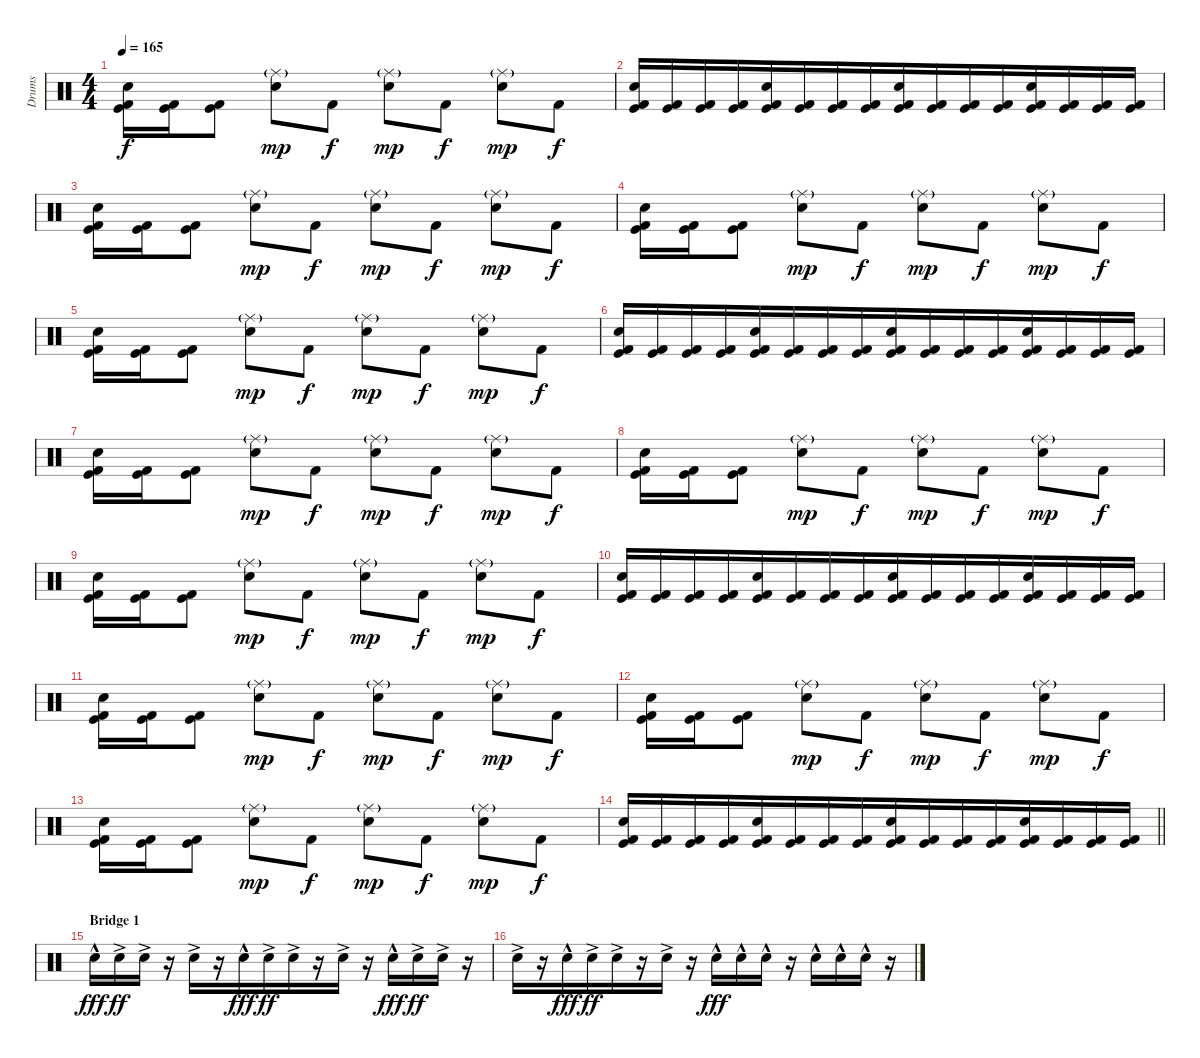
\track ("Drums" "Drums") {instrument percussion}
\staff {score}
\articulation defaults
\ts (4 4)
\tempo 165
\clef neutral
\ks c
("Snare (hit) 2" "Kick (hit)" "Kick (hit) 2").16{dy f beam Down} ("Kick (hit)" "Kick (hit) 2").16{beam Down} ("Kick (hit)" "Kick (hit) 2").8{beam Down} ("Ride (middle)"{g} "Snare (hit) 2").8{dy mp} "Kick (hit) 2".8{dy f} ("Ride (middle)"{g} "Snare (hit) 2").8{dy mp} "Kick (hit) 2".8{dy f} ("Ride (middle)"{g} "Snare (hit) 2").8{dy mp} "Kick (hit) 2".8{dy f} |
("Snare (hit) 2" "Kick (hit)" "Kick (hit) 2").16 ("Kick (hit)" "Kick (hit) 2").16 ("Kick (hit)" "Kick (hit) 2").16 ("Kick (hit)" "Kick (hit) 2").16{beam merge} ("Snare (hit) 2" "Kick (hit)" "Kick (hit) 2").16 ("Kick (hit)" "Kick (hit) 2").16 ("Kick (hit)" "Kick (hit) 2").16 ("Kick (hit)" "Kick (hit) 2").16{beam merge} ("Snare (hit) 2" "Kick (hit)" "Kick (hit) 2").16 ("Kick (hit)" "Kick (hit) 2").16 ("Kick (hit)" "Kick (hit) 2").16 ("Kick (hit)" "Kick (hit) 2").16{beam merge} ("Snare (hit) 2" "Kick (hit)" "Kick (hit) 2").16 ("Kick (hit)" "Kick (hit) 2").16 ("Kick (hit)" "Kick (hit) 2").16 ("Kick (hit)" "Kick (hit) 2").16 |
("Snare (hit) 2" "Kick (hit)" "Kick (hit) 2").16{beam Down} ("Kick (hit)" "Kick (hit) 2").16{beam Down} ("Kick (hit)" "Kick (hit) 2").8{beam Down} ("Ride (middle)"{g} "Snare (hit) 2").8{dy mp} "Kick (hit) 2".8{dy f} ("Ride (middle)"{g} "Snare (hit) 2").8{dy mp} "Kick (hit) 2".8{dy f} ("Ride (middle)"{g} "Snare (hit) 2").8{dy mp} "Kick (hit) 2".8{dy f} |
("Snare (hit) 2" "Kick (hit)" "Kick (hit) 2").16{beam Down} ("Kick (hit)" "Kick (hit) 2").16{beam Down} ("Kick (hit)" "Kick (hit) 2").8{beam Down} ("Ride (middle)"{g} "Snare (hit) 2").8{dy mp} "Kick (hit) 2".8{dy f} ("Ride (middle)"{g} "Snare (hit) 2").8{dy mp} "Kick (hit) 2".8{dy f} ("Ride (middle)"{g} "Snare (hit) 2").8{dy mp} "Kick (hit) 2".8{dy f} |
("Snare (hit) 2" "Kick (hit)" "Kick (hit) 2").16{beam Down} ("Kick (hit)" "Kick (hit) 2").16{beam Down} ("Kick (hit)" "Kick (hit) 2").8{beam Down} ("Ride (middle)"{g} "Snare (hit) 2").8{dy mp} "Kick (hit) 2".8{dy f} ("Ride (middle)"{g} "Snare (hit) 2").8{dy mp} "Kick (hit) 2".8{dy f} ("Ride (middle)"{g} "Snare (hit) 2").8{dy mp} "Kick (hit) 2".8{dy f} |
("Snare (hit) 2" "Kick (hit)" "Kick (hit) 2").16 ("Kick (hit)" "Kick (hit) 2").16 ("Kick (hit)" "Kick (hit) 2").16 ("Kick (hit)" "Kick (hit) 2").16{beam merge} ("Snare (hit) 2" "Kick (hit)" "Kick (hit) 2").16 ("Kick (hit)" "Kick (hit) 2").16 ("Kick (hit)" "Kick (hit) 2").16 ("Kick (hit)" "Kick (hit) 2").16{beam merge} ("Snare (hit) 2" "Kick (hit)" "Kick (hit) 2").16 ("Kick (hit)" "Kick (hit) 2").16 ("Kick (hit)" "Kick (hit) 2").16 ("Kick (hit)" "Kick (hit) 2").16{beam merge} ("Snare (hit) 2" "Kick (hit)" "Kick (hit) 2").16 ("Kick (hit)" "Kick (hit) 2").16 ("Kick (hit)" "Kick (hit) 2").16 ("Kick (hit)" "Kick (hit) 2").16 |
("Snare (hit) 2" "Kick (hit)" "Kick (hit) 2").16{beam Down} ("Kick (hit)" "Kick (hit) 2").16{beam Down} ("Kick (hit)" "Kick (hit) 2").8{beam Down} ("Ride (middle)"{g} "Snare (hit) 2").8{dy mp} "Kick (hit) 2".8{dy f} ("Ride (middle)"{g} "Snare (hit) 2").8{dy mp} "Kick (hit) 2".8{dy f} ("Ride (middle)"{g} "Snare (hit) 2").8{dy mp} "Kick (hit) 2".8{dy f} |
("Snare (hit) 2" "Kick (hit)" "Kick (hit) 2").16{beam Down} ("Kick (hit)" "Kick (hit) 2").16{beam Down} ("Kick (hit)" "Kick (hit) 2").8{beam Down} ("Ride (middle)"{g} "Snare (hit) 2").8{dy mp} "Kick (hit) 2".8{dy f} ("Ride (middle)"{g} "Snare (hit) 2").8{dy mp} "Kick (hit) 2".8{dy f} ("Ride (middle)"{g} "Snare (hit) 2").8{dy mp} "Kick (hit) 2".8{dy f} |
("Snare (hit) 2" "Kick (hit)" "Kick (hit) 2").16{beam Down} ("Kick (hit)" "Kick (hit) 2").16{beam Down} ("Kick (hit)" "Kick (hit) 2").8{beam Down} ("Ride (middle)"{g} "Snare (hit) 2").8{dy mp} "Kick (hit) 2".8{dy f} ("Ride (middle)"{g} "Snare (hit) 2").8{dy mp} "Kick (hit) 2".8{dy f} ("Ride (middle)"{g} "Snare (hit) 2").8{dy mp} "Kick (hit) 2".8{dy f} |
("Snare (hit) 2" "Kick (hit)" "Kick (hit) 2").16 ("Kick (hit)" "Kick (hit) 2").16 ("Kick (hit)" "Kick (hit) 2").16 ("Kick (hit)" "Kick (hit) 2").16{beam merge} ("Snare (hit) 2" "Kick (hit)" "Kick (hit) 2").16 ("Kick (hit)" "Kick (hit) 2").16 ("Kick (hit)" "Kick (hit) 2").16 ("Kick (hit)" "Kick (hit) 2").16{beam merge} ("Snare (hit) 2" "Kick (hit)" "Kick (hit) 2").16 ("Kick (hit)" "Kick (hit) 2").16 ("Kick (hit)" "Kick (hit) 2").16 ("Kick (hit)" "Kick (hit) 2").16{beam merge} ("Snare (hit) 2" "Kick (hit)" "Kick (hit) 2").16 ("Kick (hit)" "Kick (hit) 2").16 ("Kick (hit)" "Kick (hit) 2").16 ("Kick (hit)" "Kick (hit) 2").16 |
("Snare (hit) 2" "Kick (hit)" "Kick (hit) 2").16{beam Down} ("Kick (hit)" "Kick (hit) 2").16{beam Down} ("Kick (hit)" "Kick (hit) 2").8{beam Down} ("Ride (middle)"{g} "Snare (hit) 2").8{dy mp} "Kick (hit) 2".8{dy f} ("Ride (middle)"{g} "Snare (hit) 2").8{dy mp} "Kick (hit) 2".8{dy f} ("Ride (middle)"{g} "Snare (hit) 2").8{dy mp} "Kick (hit) 2".8{dy f} |
("Snare (hit) 2" "Kick (hit)" "Kick (hit) 2").16{beam Down} ("Kick (hit)" "Kick (hit) 2").16{beam Down} ("Kick (hit)" "Kick (hit) 2").8{beam Down} ("Ride (middle)"{g} "Snare (hit) 2").8{dy mp} "Kick (hit) 2".8{dy f} ("Ride (middle)"{g} "Snare (hit) 2").8{dy mp} "Kick (hit) 2".8{dy f} ("Ride (middle)"{g} "Snare (hit) 2").8{dy mp} "Kick (hit) 2".8{dy f} |
("Snare (hit) 2" "Kick (hit)" "Kick (hit) 2").16{beam Down} ("Kick (hit)" "Kick (hit) 2").16{beam Down} ("Kick (hit)" "Kick (hit) 2").8{beam Down} ("Ride (middle)"{g} "Snare (hit) 2").8{dy mp} "Kick (hit) 2".8{dy f} ("Ride (middle)"{g} "Snare (hit) 2").8{dy mp} "Kick (hit) 2".8{dy f} ("Ride (middle)"{g} "Snare (hit) 2").8{dy mp} "Kick (hit) 2".8{dy f} |
\barLineRight lightlight
("Snare (hit) 2" "Kick (hit)" "Kick (hit) 2").16 ("Kick (hit)" "Kick (hit) 2").16 ("Kick (hit)" "Kick (hit) 2").16 ("Kick (hit)" "Kick (hit) 2").16{beam merge} ("Snare (hit) 2" "Kick (hit)" "Kick (hit) 2").16 ("Kick (hit)" "Kick (hit) 2").16 ("Kick (hit)" "Kick (hit) 2").16 ("Kick (hit)" "Kick (hit) 2").16{beam merge} ("Snare (hit) 2" "Kick (hit)" "Kick (hit) 2").16 ("Kick (hit)" "Kick (hit) 2").16 ("Kick (hit)" "Kick (hit) 2").16 ("Kick (hit)" "Kick (hit) 2").16{beam merge} ("Snare (hit) 2" "Kick (hit)" "Kick (hit) 2").16 ("Kick (hit)" "Kick (hit) 2").16 ("Kick (hit)" "Kick (hit) 2").16 ("Kick (hit)" "Kick (hit) 2").16 |
\section ("" "Bridge 1")
"Snare (hit) 2"{hac}.16{dy fff} "Snare (hit) 2"{ac}.16{dy ff beam merge} "Snare (hit) 2"{ac}.16 r.16 "Snare (hit) 2"{ac}.16 r.16 "Snare (hit) 2"{hac}.16{dy fff} "Snare (hit) 2"{ac}.16{dy ff beam merge} "Snare (hit) 2"{ac}.16 r.16 "Snare (hit) 2"{ac}.16 r.16 "Snare (hit) 2"{hac}.16{dy fff} "Snare (hit) 2"{ac}.16{dy ff beam merge} "Snare (hit) 2"{ac}.16 r.16 |
"Snare (hit) 2"{ac}.16 r.16 "Snare (hit) 2"{hac}.16{dy fff} "Snare (hit) 2"{ac}.16{dy ff beam merge} "Snare (hit) 2"{ac}.16 r.16 "Snare (hit) 2"{ac}.16 r.16 "Snare (hit) 2"{hac}.16{dy fff} "Snare (hit) 2"{hac}.16 "Snare (hit) 2"{hac}.16 r.16 "Snare (hit) 2"{hac}.16 "Snare (hit) 2"{hac}.16 "Snare (hit) 2"{hac}.16 r.16
